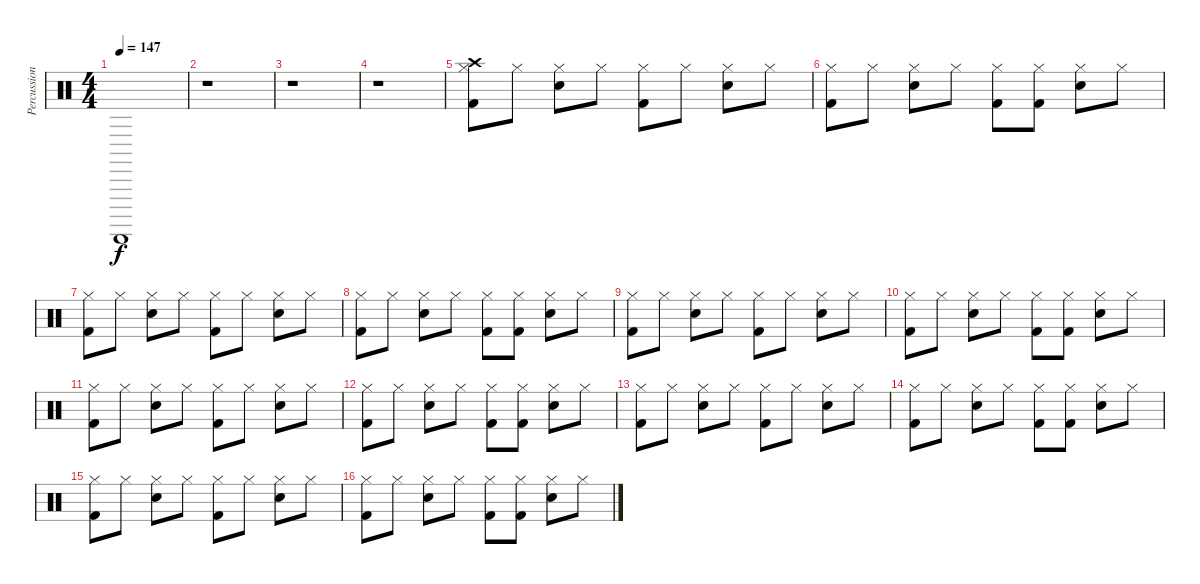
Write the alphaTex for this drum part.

\track ("Percussions" "Percussion") {instrument percussion}
\staff {score}
\articulation defaults
\ts (4 4)
\tempo 147
\clef neutral
\ks c "Guiro (scrap-return)".1{dy f}
|
r.1 |
r.1 |
r.1 |
("Crash high (hit)" "Kick (hit) 2" "Hi-Hat (closed)").8 "Hi-Hat (closed)".8 ("Electric Snare (hit)" "Hi-Hat (closed)").8 "Hi-Hat (closed)".8 ("Kick (hit) 2" "Hi-Hat (closed)").8 "Hi-Hat (closed)".8 ("Electric Snare (hit)" "Hi-Hat (closed)").8 "Hi-Hat (closed)".8 |
("Kick (hit) 2" "Hi-Hat (closed)").8 "Hi-Hat (closed)".8 ("Electric Snare (hit)" "Hi-Hat (closed)").8 "Hi-Hat (closed)".8 ("Kick (hit) 2" "Hi-Hat (closed)").8 ("Kick (hit) 2" "Hi-Hat (closed)").8 ("Electric Snare (hit)" "Hi-Hat (closed)").8 "Hi-Hat (closed)".8 |
("Kick (hit) 2" "Hi-Hat (closed)").8 "Hi-Hat (closed)".8 ("Electric Snare (hit)" "Hi-Hat (closed)").8 "Hi-Hat (closed)".8 ("Kick (hit) 2" "Hi-Hat (closed)").8 "Hi-Hat (closed)".8 ("Electric Snare (hit)" "Hi-Hat (closed)").8 "Hi-Hat (closed)".8 |
("Kick (hit) 2" "Hi-Hat (closed)").8 "Hi-Hat (closed)".8 ("Electric Snare (hit)" "Hi-Hat (closed)").8 "Hi-Hat (closed)".8 ("Kick (hit) 2" "Hi-Hat (closed)").8 ("Kick (hit) 2" "Hi-Hat (closed)").8 ("Electric Snare (hit)" "Hi-Hat (closed)").8 "Hi-Hat (closed)".8 |
("Kick (hit) 2" "Hi-Hat (closed)").8 "Hi-Hat (closed)".8 ("Electric Snare (hit)" "Hi-Hat (closed)").8 "Hi-Hat (closed)".8 ("Kick (hit) 2" "Hi-Hat (closed)").8 "Hi-Hat (closed)".8 ("Electric Snare (hit)" "Hi-Hat (closed)").8 "Hi-Hat (closed)".8 |
("Kick (hit) 2" "Hi-Hat (closed)").8 "Hi-Hat (closed)".8 ("Electric Snare (hit)" "Hi-Hat (closed)").8 "Hi-Hat (closed)".8 ("Kick (hit) 2" "Hi-Hat (closed)").8 ("Kick (hit) 2" "Hi-Hat (closed)").8 ("Electric Snare (hit)" "Hi-Hat (closed)").8 "Hi-Hat (closed)".8 |
("Kick (hit) 2" "Hi-Hat (closed)").8 "Hi-Hat (closed)".8 ("Electric Snare (hit)" "Hi-Hat (closed)").8 "Hi-Hat (closed)".8 ("Kick (hit) 2" "Hi-Hat (closed)").8 "Hi-Hat (closed)".8 ("Electric Snare (hit)" "Hi-Hat (closed)").8 "Hi-Hat (closed)".8 |
("Kick (hit) 2" "Hi-Hat (closed)").8 "Hi-Hat (closed)".8 ("Electric Snare (hit)" "Hi-Hat (closed)").8 "Hi-Hat (closed)".8 ("Kick (hit) 2" "Hi-Hat (closed)").8 ("Kick (hit) 2" "Hi-Hat (closed)").8 ("Electric Snare (hit)" "Hi-Hat (closed)").8 "Hi-Hat (closed)".8 |
("Kick (hit) 2" "Hi-Hat (closed)").8 "Hi-Hat (closed)".8 ("Electric Snare (hit)" "Hi-Hat (closed)").8 "Hi-Hat (closed)".8 ("Kick (hit) 2" "Hi-Hat (closed)").8 "Hi-Hat (closed)".8 ("Electric Snare (hit)" "Hi-Hat (closed)").8 "Hi-Hat (closed)".8 |
("Kick (hit) 2" "Hi-Hat (closed)").8 "Hi-Hat (closed)".8 ("Electric Snare (hit)" "Hi-Hat (closed)").8 "Hi-Hat (closed)".8 ("Kick (hit) 2" "Hi-Hat (closed)").8 ("Kick (hit) 2" "Hi-Hat (closed)").8 ("Electric Snare (hit)" "Hi-Hat (closed)").8 "Hi-Hat (closed)".8 |
("Kick (hit) 2" "Hi-Hat (closed)").8 "Hi-Hat (closed)".8 ("Electric Snare (hit)" "Hi-Hat (closed)").8 "Hi-Hat (closed)".8 ("Kick (hit) 2" "Hi-Hat (closed)").8 "Hi-Hat (closed)".8 ("Electric Snare (hit)" "Hi-Hat (closed)").8 "Hi-Hat (closed)".8 |
("Kick (hit) 2" "Hi-Hat (closed)").8 "Hi-Hat (closed)".8 ("Electric Snare (hit)" "Hi-Hat (closed)").8 "Hi-Hat (closed)".8 ("Kick (hit) 2" "Hi-Hat (closed)").8 ("Kick (hit) 2" "Hi-Hat (closed)").8 ("Electric Snare (hit)" "Hi-Hat (closed)").8 "Hi-Hat (closed)".8
